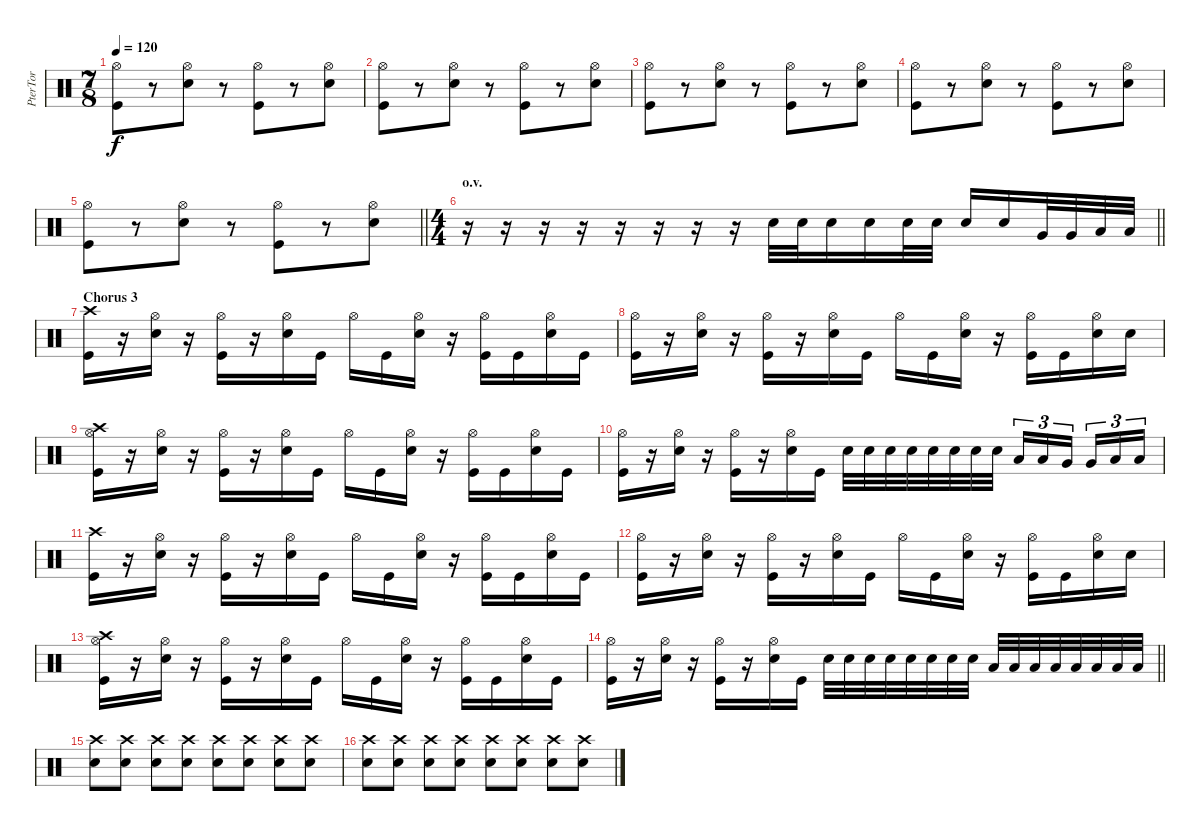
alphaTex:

\track ("PterTor" "PterTor") {instrument percussion}
\staff {score}
\articulation defaults
\ts (7 8)
\tempo 120
\clef neutral
\ks c
("Hi-Hat (open)" "Kick (hit)").8{dy f} r.8 ("Electric Snare (hit)" "Hi-Hat (open)").8 r.8 ("Hi-Hat (open)" "Kick (hit)").8 r.8 ("Electric Snare (hit)" "Hi-Hat (open)").8 |
("Hi-Hat (open)" "Kick (hit)").8 r.8 ("Electric Snare (hit)" "Hi-Hat (open)").8 r.8 ("Hi-Hat (open)" "Kick (hit)").8 r.8 ("Electric Snare (hit)" "Hi-Hat (open)").8 |
("Hi-Hat (open)" "Kick (hit)").8 r.8 ("Electric Snare (hit)" "Hi-Hat (open)").8 r.8 ("Hi-Hat (open)" "Kick (hit)").8 r.8 ("Electric Snare (hit)" "Hi-Hat (open)").8 |
("Hi-Hat (open)" "Kick (hit)").8 r.8 ("Electric Snare (hit)" "Hi-Hat (open)").8 r.8 ("Hi-Hat (open)" "Kick (hit)").8 r.8 ("Electric Snare (hit)" "Hi-Hat (open)").8 |
\barLineRight lightlight
("Hi-Hat (open)" "Kick (hit)").8 r.8 ("Electric Snare (hit)" "Hi-Hat (open)").8 r.8 ("Hi-Hat (open)" "Kick (hit)").8 r.8 ("Electric Snare (hit)" "Hi-Hat (open)").8 |
\ts (4 4)
\section ("" "o.v.")
\barLineRight lightlight
r.16 r.16 r.16 r.16 r.16 r.16 r.16 r.16 "Electric Snare (hit)".32 "Electric Snare (hit)".32 "Electric Snare (hit)".16 "Electric Snare (hit)".16 "Electric Snare (hit)".32 "Electric Snare (hit)".32 "Electric Snare (hit)".16 "Electric Snare (hit)".16 "Very Low Tom (hit)".32 "Very Low Tom (hit)".32 "Low Floor Tom (hit)".32 "Low Floor Tom (hit)".32 |
\section ("" "Chorus 3")
("Crash high (hit)" "Kick (hit)").16 r.16 ("Hi-Hat (open)" "Electric Snare (hit)").16 r.16 ("Hi-Hat (open)" "Kick (hit)").16 r.16 ("Hi-Hat (open)" "Electric Snare (hit)").16 "Kick (hit)".16 "Hi-Hat (open)".16 "Kick (hit)".16 ("Hi-Hat (open)" "Electric Snare (hit)").16 r.16 ("Hi-Hat (open)" "Kick (hit)").16 "Kick (hit)".16 ("Hi-Hat (open)" "Electric Snare (hit)").16 "Kick (hit)".16 |
("Hi-Hat (open)" "Kick (hit)").16 r.16 ("Hi-Hat (open)" "Electric Snare (hit)").16 r.16 ("Hi-Hat (open)" "Kick (hit)").16 r.16 ("Hi-Hat (open)" "Electric Snare (hit)").16 "Kick (hit)".16 "Hi-Hat (open)".16 "Kick (hit)".16 ("Hi-Hat (open)" "Electric Snare (hit)").16 r.16 ("Hi-Hat (open)" "Kick (hit)").16 "Kick (hit)".16 ("Hi-Hat (open)" "Electric Snare (hit)").16 "Electric Snare (hit)".16 |
("Crash high (hit)" "Hi-Hat (open)" "Kick (hit)").16 r.16 ("Hi-Hat (open)" "Electric Snare (hit)").16 r.16 ("Hi-Hat (open)" "Kick (hit)").16 r.16 ("Hi-Hat (open)" "Electric Snare (hit)").16 "Kick (hit)".16 "Hi-Hat (open)".16 "Kick (hit)".16 ("Hi-Hat (open)" "Electric Snare (hit)").16 r.16 ("Hi-Hat (open)" "Kick (hit)").16 "Kick (hit)".16 ("Hi-Hat (open)" "Electric Snare (hit)").16 "Kick (hit)".16 |
("Hi-Hat (open)" "Kick (hit)").16 r.16 ("Hi-Hat (open)" "Electric Snare (hit)").16 r.16 ("Hi-Hat (open)" "Kick (hit)").16 r.16 ("Hi-Hat (open)" "Electric Snare (hit)").16 "Kick (hit)".16 "Electric Snare (hit)".32 "Electric Snare (hit)".32 "Electric Snare (hit)".32 "Electric Snare (hit)".32 "Electric Snare (hit)".32 "Electric Snare (hit)".32 "Electric Snare (hit)".32 "Electric Snare (hit)".32 "Low Tom (hit)".16{tu (3 2)} "Low Tom (hit)".16{tu (3 2)} "Very Low Tom (hit)".16{tu (3 2) beam splitsecondary} "Very Low Tom (hit)".16{tu (3 2)} "Low Floor Tom (hit)".16{tu (3 2)} "Low Floor Tom (hit)".16{tu (3 2)} |
("Crash high (hit)" "Kick (hit)").16 r.16 ("Hi-Hat (open)" "Electric Snare (hit)").16 r.16 ("Hi-Hat (open)" "Kick (hit)").16 r.16 ("Hi-Hat (open)" "Electric Snare (hit)").16 "Kick (hit)".16 "Hi-Hat (open)".16 "Kick (hit)".16 ("Hi-Hat (open)" "Electric Snare (hit)").16 r.16 ("Hi-Hat (open)" "Kick (hit)").16 "Kick (hit)".16 ("Hi-Hat (open)" "Electric Snare (hit)").16 "Kick (hit)".16 |
("Hi-Hat (open)" "Kick (hit)").16 r.16 ("Hi-Hat (open)" "Electric Snare (hit)").16 r.16 ("Hi-Hat (open)" "Kick (hit)").16 r.16 ("Hi-Hat (open)" "Electric Snare (hit)").16 "Kick (hit)".16 "Hi-Hat (open)".16 "Kick (hit)".16 ("Hi-Hat (open)" "Electric Snare (hit)").16 r.16 ("Hi-Hat (open)" "Kick (hit)").16 "Kick (hit)".16 ("Hi-Hat (open)" "Electric Snare (hit)").16 "Electric Snare (hit)".16 |
("Crash high (hit)" "Hi-Hat (open)" "Kick (hit)").16 r.16 ("Hi-Hat (open)" "Electric Snare (hit)").16 r.16 ("Hi-Hat (open)" "Kick (hit)").16 r.16 ("Hi-Hat (open)" "Electric Snare (hit)").16 "Kick (hit)".16 "Hi-Hat (open)".16 "Kick (hit)".16 ("Hi-Hat (open)" "Electric Snare (hit)").16 r.16 ("Hi-Hat (open)" "Kick (hit)").16 "Kick (hit)".16 ("Hi-Hat (open)" "Electric Snare (hit)").16 "Kick (hit)".16 |
\barLineRight lightlight
("Hi-Hat (open)" "Kick (hit)").16 r.16 ("Hi-Hat (open)" "Electric Snare (hit)").16 r.16 ("Hi-Hat (open)" "Kick (hit)").16 r.16 ("Hi-Hat (open)" "Electric Snare (hit)").16 "Kick (hit)".16 "Electric Snare (hit)".32 "Electric Snare (hit)".32 "Electric Snare (hit)".32 "Electric Snare (hit)".32 "Electric Snare (hit)".32 "Electric Snare (hit)".32 "Electric Snare (hit)".32 "Electric Snare (hit)".32 "Low Tom (hit)".32 "Low Tom (hit)".32 "Low Tom (hit)".32 "Low Tom (hit)".32 "Low Floor Tom (hit)".32 "Low Floor Tom (hit)".32 "Low Floor Tom (hit)".32 "Low Floor Tom (hit)".32 |
("Crash high (hit)" "Electric Snare (hit)").8 ("Crash high (hit)" "Electric Snare (hit)").8 ("Crash high (hit)" "Electric Snare (hit)").8 ("Crash high (hit)" "Electric Snare (hit)").8 ("Crash high (hit)" "Electric Snare (hit)").8 ("Crash high (hit)" "Electric Snare (hit)").8 ("Crash high (hit)" "Electric Snare (hit)").8 ("Crash high (hit)" "Electric Snare (hit)").8 |
("Crash high (hit)" "Electric Snare (hit)").8 ("Crash high (hit)" "Electric Snare (hit)").8 ("Crash high (hit)" "Electric Snare (hit)").8 ("Crash high (hit)" "Electric Snare (hit)").8 ("Crash high (hit)" "Electric Snare (hit)").8 ("Crash high (hit)" "Electric Snare (hit)").8 ("Crash high (hit)" "Electric Snare (hit)").8 ("Crash high (hit)" "Electric Snare (hit)").8
